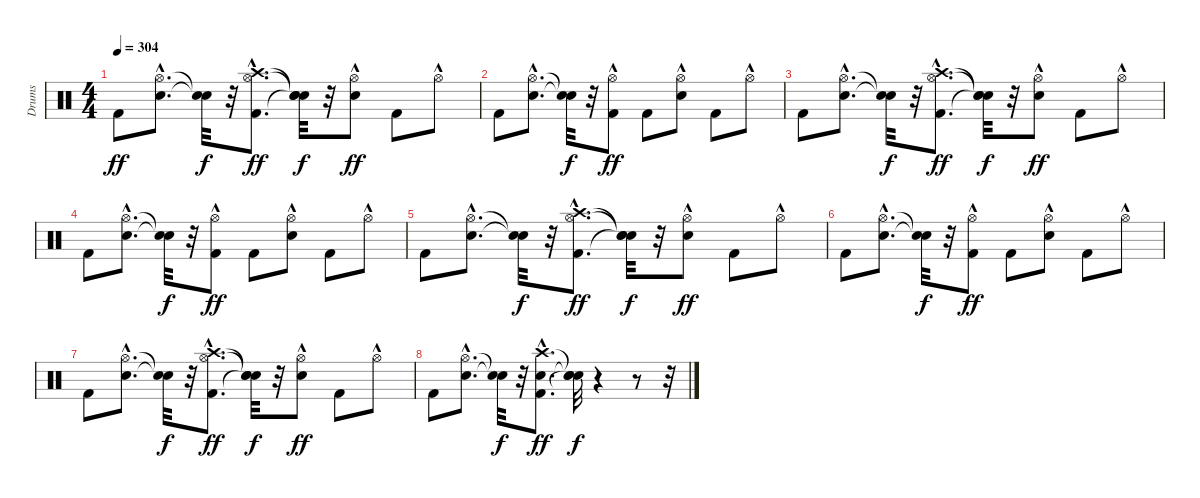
\track ("Drums" "Drums") {instrument percussion}
\staff {score}
\articulation defaults
\ts (4 4)
\tempo 304
\clef neutral
\ks c "Kick (hit) 2".8{dy ff}
("Snare (hit) 2"{hac} "Hi-Hat (open)"{hac}).8{d} ("Snare (hit)"{t} "Snare (hit)"{t}).32{dy f} r.32 ("Kick (hit) 2"{hac} "Hi-Hat (open)"{hac} "Crash high (hit)"{hac}).8{d dy ff} ("Snare (hit)"{t} "Snare (hit)"{t} "Snare (hit)"{t}).32{dy f} r.32 ("Snare (hit) 2" "Hi-Hat (open)"{hac}).8{dy ff} "Kick (hit) 2".8 "Hi-Hat (open)"{hac}.8 |
"Kick (hit) 2".8 ("Snare (hit) 2"{hac} "Hi-Hat (open)"{hac}).8{d} ("Snare (hit)"{t} "Snare (hit)"{t}).32{dy f} r.32 ("Kick (hit) 2" "Hi-Hat (open)"{hac}).8{dy ff} "Kick (hit) 2".8 ("Snare (hit) 2" "Hi-Hat (open)"{hac}).8 "Kick (hit) 2".8 "Hi-Hat (open)"{hac}.8 |
"Kick (hit) 2".8 ("Snare (hit) 2"{hac} "Hi-Hat (open)"{hac}).8{d} ("Snare (hit)"{t} "Snare (hit)"{t}).32{dy f} r.32 ("Kick (hit) 2"{hac} "Hi-Hat (open)"{hac} "Crash high (hit)"{hac}).8{d dy ff} ("Snare (hit)"{t} "Snare (hit)"{t} "Snare (hit)"{t}).32{dy f} r.32 ("Snare (hit) 2" "Hi-Hat (open)"{hac}).8{dy ff} "Kick (hit) 2".8 "Hi-Hat (open)"{hac}.8 |
"Kick (hit) 2".8 ("Snare (hit) 2"{hac} "Hi-Hat (open)"{hac}).8{d} ("Snare (hit)"{t} "Snare (hit)"{t}).32{dy f} r.32 ("Kick (hit) 2" "Hi-Hat (open)"{hac}).8{dy ff} "Kick (hit) 2".8 ("Snare (hit) 2" "Hi-Hat (open)"{hac}).8 "Kick (hit) 2".8 "Hi-Hat (open)"{hac}.8 |
"Kick (hit) 2".8 ("Snare (hit) 2"{hac} "Hi-Hat (open)"{hac}).8{d} ("Snare (hit)"{t} "Snare (hit)"{t}).32{dy f} r.32 ("Kick (hit) 2"{hac} "Hi-Hat (open)"{hac} "Crash high (hit)"{hac}).8{d dy ff} ("Snare (hit)"{t} "Snare (hit)"{t} "Snare (hit)"{t}).32{dy f} r.32 ("Snare (hit) 2" "Hi-Hat (open)"{hac}).8{dy ff} "Kick (hit) 2".8 "Hi-Hat (open)"{hac}.8 |
"Kick (hit) 2".8 ("Snare (hit) 2"{hac} "Hi-Hat (open)"{hac}).8{d} ("Snare (hit)"{t} "Snare (hit)"{t}).32{dy f} r.32 ("Kick (hit) 2" "Hi-Hat (open)"{hac}).8{dy ff} "Kick (hit) 2".8 ("Snare (hit) 2" "Hi-Hat (open)"{hac}).8 "Kick (hit) 2".8 "Hi-Hat (open)"{hac}.8 |
"Kick (hit) 2".8 ("Snare (hit) 2"{hac} "Hi-Hat (open)"{hac}).8{d} ("Snare (hit)"{t} "Snare (hit)"{t}).32{dy f} r.32 ("Kick (hit) 2"{hac} "Hi-Hat (open)"{hac} "Crash high (hit)"{hac}).8{d dy ff} ("Snare (hit)"{t} "Snare (hit)"{t} "Snare (hit)"{t}).32{dy f} r.32 ("Snare (hit) 2" "Hi-Hat (open)"{hac}).8{dy ff} "Kick (hit) 2".8 "Hi-Hat (open)"{hac}.8 |
"Kick (hit) 2".8 ("Snare (hit) 2"{hac} "Hi-Hat (open)"{hac}).8{d} ("Snare (hit)"{t} "Snare (hit)"{t}).32{dy f} r.32 ("Kick (hit) 2"{hac} "Snare (hit) 2"{hac} "Crash high (hit)"{hac}).8{d dy ff} ("Snare (hit)"{t} "Snare (hit)"{t} "Snare (hit)"{t}).32{dy f} r.4 r.8 r.32
